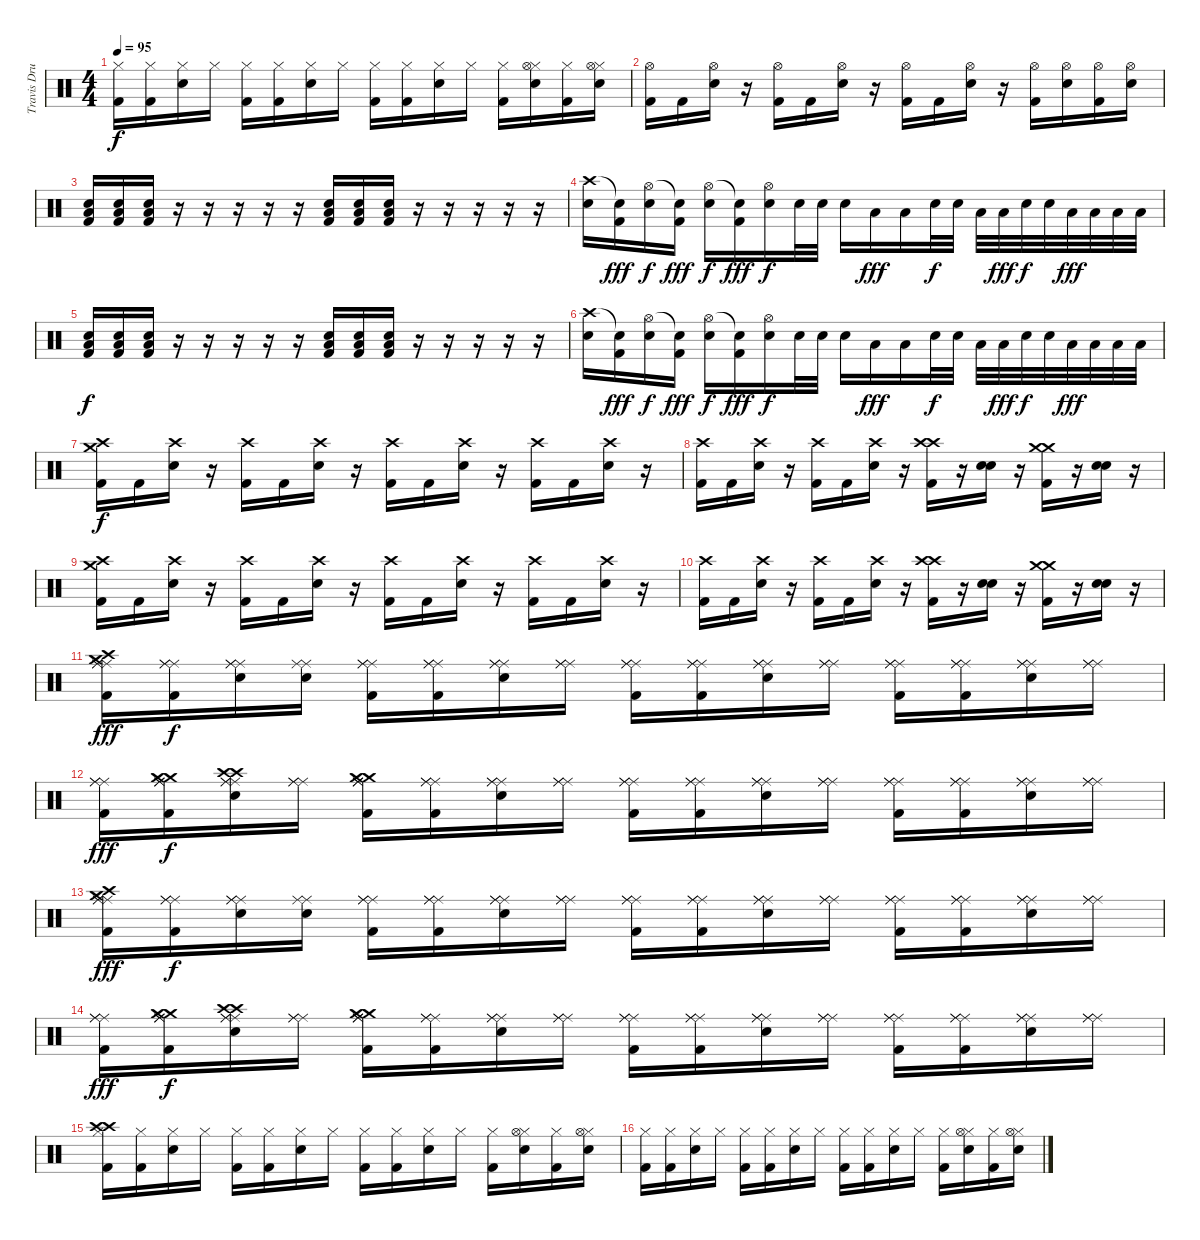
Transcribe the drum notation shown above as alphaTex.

\track ("Travis Drums" "Travis Dru") {instrument percussion}
\staff {score}
\articulation defaults
\ts (4 4)
\tempo 95
\clef neutral
\ks c
("Hi-Hat (closed)" "Kick (hit) 2").16{dy f} ("Hi-Hat (closed)" "Kick (hit) 2").16 ("Hi-Hat (closed)" "Snare (hit) 2").16 "Hi-Hat (closed)".16 ("Hi-Hat (closed)" "Kick (hit) 2").16 ("Hi-Hat (closed)" "Kick (hit) 2").16 ("Hi-Hat (closed)" "Snare (hit) 2").16 "Hi-Hat (closed)".16 ("Hi-Hat (closed)" "Kick (hit) 2").16 ("Hi-Hat (closed)" "Kick (hit) 2").16 ("Hi-Hat (closed)" "Snare (hit) 2").16 "Hi-Hat (closed)".16 ("Hi-Hat (closed)" "Kick (hit) 2").16 ("Hi-Hat (closed)" "Hi-Hat (open)" "Snare (hit) 2").16 ("Hi-Hat (closed)" "Kick (hit) 2").16 ("Hi-Hat (closed)" "Hi-Hat (open)" "Snare (hit) 2").16 |
("Hi-Hat (open)" "Kick (hit) 2").16 "Kick (hit) 2".16 ("Hi-Hat (open)" "Snare (hit) 2").16 r.16 ("Hi-Hat (open)" "Kick (hit) 2").16 "Kick (hit) 2".16 ("Hi-Hat (open)" "Snare (hit) 2").16 r.16 ("Hi-Hat (open)" "Kick (hit) 2").16 "Kick (hit) 2".16 ("Hi-Hat (open)" "Snare (hit) 2").16 r.16 ("Hi-Hat (open)" "Kick (hit) 2").16 ("Hi-Hat (open)" "Snare (hit) 2").16 ("Hi-Hat (open)" "Kick (hit) 2").16 ("Hi-Hat (open)" "Snare (hit) 2").16 |
("Snare (hit) 2" "Kick (hit) 2" "Low Floor Tom (hit)").16 ("Snare (hit) 2" "Kick (hit) 2" "Low Floor Tom (hit)").16 ("Snare (hit) 2" "Kick (hit) 2" "Low Floor Tom (hit)").16 r.16 r.16 r.16 r.16 r.16 ("Snare (hit) 2" "Kick (hit) 2" "Low Floor Tom (hit)").16 ("Snare (hit) 2" "Kick (hit) 2" "Low Floor Tom (hit)").16 ("Snare (hit) 2" "Kick (hit) 2" "Low Floor Tom (hit)").16 r.16 r.16 r.16 r.16 r.16 |
("Crash high (hit)" "Snare (hit) 2").16 ("Snare (hit)"{t} "Kick (hit) 2").16{dy fff} ("Hi-Hat (open)" "Snare (hit) 2").16{dy f} ("Snare (hit)"{t} "Kick (hit) 2").16{dy fff} ("Hi-Hat (open)" "Snare (hit) 2").16{dy f} ("Snare (hit)"{t} "Kick (hit) 2").16{dy fff} ("Hi-Hat (open)" "Snare (hit) 2").16{dy f} "Snare (hit) 2".32 "Snare (hit) 2".32 "Snare (hit) 2".16 "Low Tom (hit)".16{dy fff} "Low Floor Tom (hit)".16 "Snare (hit) 2".32{dy f} "Snare (hit) 2".32 "Low Tom (hit)".32 "Low Tom (hit)".32{dy fff} "Snare (hit) 2".32{dy f} "Snare (hit) 2".32 "Low Floor Tom (hit)".32{dy fff} "Low Floor Tom (hit)".32 "Low Floor Tom (hit)".32 "Low Floor Tom (hit)".32 |
("Snare (hit) 2" "Kick (hit) 2" "Low Floor Tom (hit)").16{dy f} ("Snare (hit) 2" "Kick (hit) 2" "Low Floor Tom (hit)").16 ("Snare (hit) 2" "Kick (hit) 2" "Low Floor Tom (hit)").16 r.16 r.16 r.16 r.16 r.16 ("Snare (hit) 2" "Kick (hit) 2" "Low Floor Tom (hit)").16 ("Snare (hit) 2" "Kick (hit) 2" "Low Floor Tom (hit)").16 ("Snare (hit) 2" "Kick (hit) 2" "Low Floor Tom (hit)").16 r.16 r.16 r.16 r.16 r.16 |
("Crash high (hit)" "Snare (hit) 2").16 ("Snare (hit)"{t} "Kick (hit) 2").16{dy fff} ("Hi-Hat (open)" "Snare (hit) 2").16{dy f} ("Snare (hit)"{t} "Kick (hit) 2").16{dy fff} ("Hi-Hat (open)" "Snare (hit) 2").16{dy f} ("Snare (hit)"{t} "Kick (hit) 2").16{dy fff} ("Hi-Hat (open)" "Snare (hit) 2").16{dy f} "Snare (hit) 2".32 "Snare (hit) 2".32 "Snare (hit) 2".16 "Low Tom (hit)".16{dy fff} "Low Floor Tom (hit)".16 "Snare (hit) 2".32{dy f} "Snare (hit) 2".32 "Low Tom (hit)".32 "Low Tom (hit)".32{dy fff} "Snare (hit) 2".32{dy f} "Snare (hit) 2".32 "Low Floor Tom (hit)".32{dy fff} "Low Floor Tom (hit)".32 "Low Floor Tom (hit)".32 "Low Floor Tom (hit)".32 |
("Crash medium (hit)" "Crash high (hit)" "Kick (hit) 2").16{dy f} "Kick (hit) 2".16 ("Crash high (hit)" "Snare (hit) 2").16 r.16 ("Crash high (hit)" "Kick (hit) 2").16 "Kick (hit) 2".16 ("Crash high (hit)" "Snare (hit) 2").16 r.16 ("Crash high (hit)" "Kick (hit) 2").16 "Kick (hit) 2".16 ("Crash high (hit)" "Snare (hit) 2").16 r.16 ("Crash high (hit)" "Kick (hit) 2").16 "Kick (hit) 2".16 ("Crash high (hit)" "Snare (hit) 2").16 r.16 |
("Crash high (hit)" "Kick (hit) 2").16 "Kick (hit) 2".16 ("Crash high (hit)" "Snare (hit) 2").16 r.16 ("Crash high (hit)" "Kick (hit) 2").16 "Kick (hit) 2".16 ("Crash high (hit)" "Snare (hit) 2").16 r.16 ("Crash high (hit)" "Crash high (hit)" "Kick (hit) 2").16 r.16 ("Snare (hit) 2" "Snare (hit) 2").16 r.16 ("Crash medium (hit)" "Crash medium (hit)" "Kick (hit) 2").16 r.16 ("Snare (hit) 2" "Snare (hit) 2").16 r.16 |
("Crash medium (hit)" "Crash high (hit)" "Kick (hit) 2").16 "Kick (hit) 2".16 ("Crash high (hit)" "Snare (hit) 2").16 r.16 ("Crash high (hit)" "Kick (hit) 2").16 "Kick (hit) 2".16 ("Crash high (hit)" "Snare (hit) 2").16 r.16 ("Crash high (hit)" "Kick (hit) 2").16 "Kick (hit) 2".16 ("Crash high (hit)" "Snare (hit) 2").16 r.16 ("Crash high (hit)" "Kick (hit) 2").16 "Kick (hit) 2".16 ("Crash high (hit)" "Snare (hit) 2").16 r.16 |
("Crash high (hit)" "Kick (hit) 2").16 "Kick (hit) 2".16 ("Crash high (hit)" "Snare (hit) 2").16 r.16 ("Crash high (hit)" "Kick (hit) 2").16 "Kick (hit) 2".16 ("Crash high (hit)" "Snare (hit) 2").16 r.16 ("Crash high (hit)" "Crash high (hit)" "Kick (hit) 2").16 r.16 ("Snare (hit) 2" "Snare (hit) 2").16 r.16 ("Crash medium (hit)" "Crash medium (hit)" "Kick (hit) 2").16 r.16 ("Snare (hit) 2" "Snare (hit) 2").16 r.16 |
("Ride (middle)" "Kick (hit) 2" "Crash high (hit)" "Crash medium (hit)" "Ride (middle)" "Ride (middle)").16{dy fff} ("Ride (middle)" "Kick (hit) 2" "Ride (middle)" "Ride (middle)").16{dy f} ("Ride (middle)" "Snare (hit) 2" "Ride (middle)" "Ride (middle)").16 ("Ride (middle)" "Snare (hit)" "Ride (middle)").16 ("Ride (middle)" "Kick (hit) 2" "Ride (middle)" "Ride (middle)").16 ("Ride (middle)" "Kick (hit) 2" "Ride (middle)" "Ride (middle)").16 ("Ride (middle)" "Snare (hit) 2" "Ride (middle)" "Ride (middle)").16 ("Ride (middle)" "Ride (middle)" "Ride (middle)").16 ("Ride (middle)" "Kick (hit) 2" "Ride (middle)" "Ride (middle)").16 ("Ride (middle)" "Kick (hit) 2" "Ride (middle)" "Ride (middle)").16 ("Ride (middle)" "Snare (hit) 2" "Ride (middle)" "Ride (middle)").16 ("Ride (middle)" "Ride (middle)" "Ride (middle)").16 ("Ride (middle)" "Kick (hit) 2" "Ride (middle)" "Ride (middle)").16 ("Ride (middle)" "Kick (hit) 2" "Ride (middle)" "Ride (middle)").16 ("Ride (middle)" "Snare (hit) 2" "Ride (middle)" "Ride (middle)").16 ("Ride (middle)" "Ride (middle)" "Ride (middle)").16 |
("Ride (middle)" "Kick (hit) 2" "Ride (middle)" "Ride (middle)").16{dy fff} ("Ride (middle)" "Kick (hit) 2" "Crash medium (hit)" "Crash medium (hit)" "Ride (middle)" "Ride (middle)").16{dy f} ("Ride (middle)" "Snare (hit) 2" "Crash high (hit)" "Crash high (hit)" "Ride (middle)" "Ride (middle)").16 ("Ride (middle)" "Ride (middle)" "Ride (middle)").16 ("Ride (middle)" "Kick (hit) 2" "Crash medium (hit)" "Crash medium (hit)" "Ride (middle)" "Ride (middle)").16 ("Ride (middle)" "Kick (hit) 2" "Ride (middle)" "Ride (middle)").16 ("Ride (middle)" "Snare (hit) 2" "Ride (middle)" "Ride (middle)").16 ("Ride (middle)" "Ride (middle)" "Ride (middle)").16 ("Ride (middle)" "Kick (hit) 2" "Ride (middle)" "Ride (middle)").16 ("Ride (middle)" "Kick (hit) 2" "Ride (middle)" "Ride (middle)").16 ("Ride (middle)" "Snare (hit) 2" "Ride (middle)" "Ride (middle)").16 ("Ride (middle)" "Ride (middle)" "Ride (middle)").16 ("Ride (middle)" "Kick (hit) 2" "Ride (middle)" "Ride (middle)").16 ("Ride (middle)" "Kick (hit) 2" "Ride (middle)" "Ride (middle)").16 ("Ride (middle)" "Snare (hit) 2" "Ride (middle)" "Ride (middle)").16 ("Ride (middle)" "Ride (middle)" "Ride (middle)").16 |
("Ride (middle)" "Kick (hit) 2" "Crash high (hit)" "Crash medium (hit)" "Ride (middle)" "Ride (middle)").16{dy fff} ("Ride (middle)" "Kick (hit) 2" "Ride (middle)" "Ride (middle)").16{dy f} ("Ride (middle)" "Snare (hit) 2" "Ride (middle)" "Ride (middle)").16 ("Ride (middle)" "Snare (hit)" "Ride (middle)").16 ("Ride (middle)" "Kick (hit) 2" "Ride (middle)" "Ride (middle)").16 ("Ride (middle)" "Kick (hit) 2" "Ride (middle)" "Ride (middle)").16 ("Ride (middle)" "Snare (hit) 2" "Ride (middle)" "Ride (middle)").16 ("Ride (middle)" "Ride (middle)" "Ride (middle)").16 ("Ride (middle)" "Kick (hit) 2" "Ride (middle)" "Ride (middle)").16 ("Ride (middle)" "Kick (hit) 2" "Ride (middle)" "Ride (middle)").16 ("Ride (middle)" "Snare (hit) 2" "Ride (middle)" "Ride (middle)").16 ("Ride (middle)" "Ride (middle)" "Ride (middle)").16 ("Ride (middle)" "Kick (hit) 2" "Ride (middle)" "Ride (middle)").16 ("Ride (middle)" "Kick (hit) 2" "Ride (middle)" "Ride (middle)").16 ("Ride (middle)" "Snare (hit) 2" "Ride (middle)" "Ride (middle)").16 ("Ride (middle)" "Ride (middle)" "Ride (middle)").16 |
("Ride (middle)" "Kick (hit) 2" "Ride (middle)" "Ride (middle)").16{dy fff} ("Ride (middle)" "Kick (hit) 2" "Crash medium (hit)" "Crash medium (hit)" "Ride (middle)" "Ride (middle)").16{dy f} ("Ride (middle)" "Snare (hit) 2" "Crash high (hit)" "Crash high (hit)" "Ride (middle)" "Ride (middle)").16 ("Ride (middle)" "Ride (middle)" "Ride (middle)").16 ("Ride (middle)" "Kick (hit) 2" "Crash medium (hit)" "Crash medium (hit)" "Ride (middle)" "Ride (middle)").16 ("Ride (middle)" "Kick (hit) 2" "Ride (middle)" "Ride (middle)").16 ("Ride (middle)" "Snare (hit) 2" "Ride (middle)" "Ride (middle)").16 ("Ride (middle)" "Ride (middle)" "Ride (middle)").16 ("Ride (middle)" "Kick (hit) 2" "Ride (middle)" "Ride (middle)").16 ("Ride (middle)" "Kick (hit) 2" "Ride (middle)" "Ride (middle)").16 ("Ride (middle)" "Snare (hit) 2" "Ride (middle)" "Ride (middle)").16 ("Ride (middle)" "Ride (middle)" "Ride (middle)").16 ("Ride (middle)" "Kick (hit) 2" "Ride (middle)" "Ride (middle)").16 ("Ride (middle)" "Kick (hit) 2" "Ride (middle)" "Ride (middle)").16 ("Ride (middle)" "Snare (hit) 2" "Ride (middle)" "Ride (middle)").16 ("Ride (middle)" "Ride (middle)" "Ride (middle)").16 |
("Hi-Hat (closed)" "Kick (hit) 2" "Crash high (hit)" "Crash high (hit)").16 ("Hi-Hat (closed)" "Kick (hit) 2").16 ("Hi-Hat (closed)" "Snare (hit) 2").16 "Hi-Hat (closed)".16 ("Hi-Hat (closed)" "Kick (hit) 2").16 ("Hi-Hat (closed)" "Kick (hit) 2").16 ("Hi-Hat (closed)" "Snare (hit) 2").16 "Hi-Hat (closed)".16 ("Hi-Hat (closed)" "Kick (hit) 2").16 ("Hi-Hat (closed)" "Kick (hit) 2").16 ("Hi-Hat (closed)" "Snare (hit) 2").16 "Hi-Hat (closed)".16 ("Hi-Hat (closed)" "Kick (hit) 2").16 ("Hi-Hat (closed)" "Hi-Hat (open)" "Snare (hit) 2").16 ("Hi-Hat (closed)" "Kick (hit) 2").16 ("Hi-Hat (closed)" "Hi-Hat (open)" "Snare (hit) 2").16 |
("Hi-Hat (closed)" "Kick (hit) 2").16 ("Hi-Hat (closed)" "Kick (hit) 2").16 ("Hi-Hat (closed)" "Snare (hit) 2").16 "Hi-Hat (closed)".16 ("Hi-Hat (closed)" "Kick (hit) 2").16 ("Hi-Hat (closed)" "Kick (hit) 2").16 ("Hi-Hat (closed)" "Snare (hit) 2").16 "Hi-Hat (closed)".16 ("Hi-Hat (closed)" "Kick (hit) 2").16 ("Hi-Hat (closed)" "Kick (hit) 2").16 ("Hi-Hat (closed)" "Snare (hit) 2").16 "Hi-Hat (closed)".16 ("Hi-Hat (closed)" "Kick (hit) 2").16 ("Hi-Hat (closed)" "Hi-Hat (open)" "Snare (hit) 2").16 ("Hi-Hat (closed)" "Kick (hit) 2").16 ("Hi-Hat (closed)" "Hi-Hat (open)" "Snare (hit) 2").16
